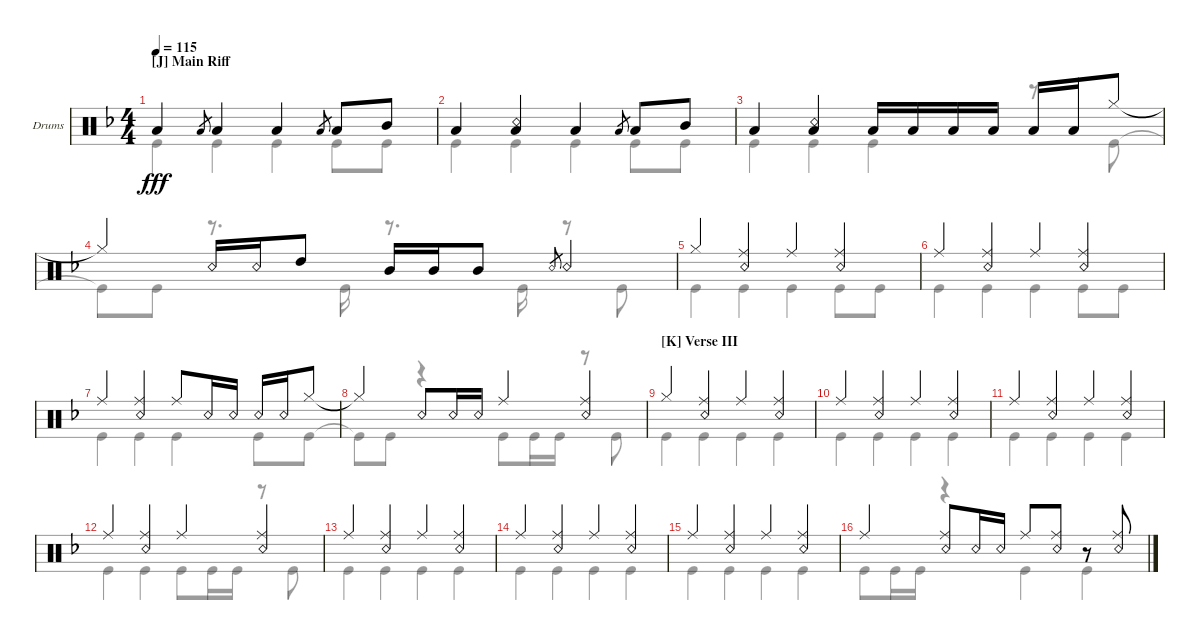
\defaultSystemsLayout 4
\bracketExtendMode groupsimilarinstruments
\firstSystemTrackNameOrientation horizontal
\otherSystemsTrackNameOrientation horizontal
\track ("Randy Castillo" "Drums") {instrument percussion}
\staff {score}
\articulation defaults
\voice
\ts (4 4)
\section ("J" "Main Riff")
\tempo 115
\clef neutral
\ks f "Low Tom (hit)".4{dy fff} "Low Tom (hit)".8{gr} "Low Tom (hit)".4 "Low Tom (hit)".4 "Low Tom (hit)".8{gr} "Low Tom (hit)".8 "Mid Tom (hit)".8
|
"Low Tom (hit)".4 ("Low Tom (hit)" "Snare (rim shot)").4 "Low Tom (hit)".4 "Low Tom (hit)".8{gr} "Low Tom (hit)".8 "Mid Tom (hit)".8 |
"Low Tom (hit)".4 ("Low Tom (hit)" "Snare (rim shot)").4 "Low Tom (hit)".16 "Low Tom (hit)".16 "Low Tom (hit)".16 "Low Tom (hit)".16 "Low Tom (hit)".16 "Low Tom (hit)".16 "Hi-Hat (closed)".8 |
"Hi-Hat (closed)"{t}.4 "Snare (rim shot)".16 "Snare (rim shot)".16 "High Tom (hit)".8 "Mid Tom (hit)".16 "Mid Tom (hit)".16 "Mid Tom (hit)".8 "Snare (rim shot)".8{gr} "Snare (rim shot)".4 |
"Hi-Hat (closed)".4 ("Ride (middle)" "Snare (rim shot)").4 "Ride (middle)".4 ("Ride (middle)" "Snare (rim shot)").4 |
"Ride (middle)".4 ("Ride (middle)" "Snare (rim shot)").4 "Ride (middle)".4 ("Ride (middle)" "Snare (rim shot)").4 |
"Ride (middle)".4 ("Ride (middle)" "Snare (rim shot)").4 "Ride (middle)".8 "Snare (rim shot)".16 "Snare (rim shot)".16 "Snare (rim shot)".16 "Snare (rim shot)".16 "Hi-Hat (closed)".8 |
"Hi-Hat (closed)"{t}.4 "Snare (rim shot)".8 "Snare (rim shot)".16 "Snare (rim shot)".16 "Ride (middle)".4 ("Ride (middle)" "Snare (rim shot)").4 |
\section ("K" "Verse III")
"Hi-Hat (closed)".4 ("Ride (middle)" "Snare (rim shot)").4 "Ride (middle)".4 ("Ride (middle)" "Snare (rim shot)").4 |
"Ride (middle)".4 ("Ride (middle)" "Snare (rim shot)").4 "Ride (middle)".4 ("Ride (middle)" "Snare (rim shot)").4 |
"Ride (middle)".4 ("Ride (middle)" "Snare (rim shot)").4 "Ride (middle)".4 ("Ride (middle)" "Snare (rim shot)").4 |
"Ride (middle)".4 ("Ride (middle)" "Snare (rim shot)").4 "Ride (middle)".4 ("Ride (middle)" "Snare (rim shot)").4 |
"Ride (middle)".4 ("Ride (middle)" "Snare (rim shot)").4 "Ride (middle)".4 ("Ride (middle)" "Snare (rim shot)").4 |
"Ride (middle)".4 ("Ride (middle)" "Snare (rim shot)").4 "Ride (middle)".4 ("Ride (middle)" "Snare (rim shot)").4 |
"Ride (middle)".4 ("Ride (middle)" "Snare (rim shot)").4 "Ride (middle)".4 ("Ride (middle)" "Snare (rim shot)").4 |
"Ride (middle)".4 ("Ride (middle)" "Snare (rim shot)").8 "Snare (rim shot)".16 "Snare (rim shot)".16 "Ride (middle)".8 ("Ride (middle)" "Snare (rim shot)").8 r.8 ("Ride (middle)" "Snare (rim shot)").8
\voice
\clef neutral
\ottava regular
\simile none
\ks f "Kick (hit)".4{dy fff} "Kick (hit)".4 "Kick (hit)".4 "Kick (hit)".8 "Kick (hit)".8
|
"Kick (hit)".4 "Kick (hit)".4 "Kick (hit)".4 "Kick (hit)".8 "Kick (hit)".8 |
"Kick (hit)".4 "Kick (hit)".4 "Kick (hit)".4 r.8 "Kick (hit)".8 |
"Kick (hit)"{t}.8 "Kick (hit)".8 r.8{d} "Kick (hit)".16 r.8{d} "Kick (hit)".16 r.8 "Kick (hit)".8 |
"Kick (hit)".4 "Kick (hit)".4 "Kick (hit)".4 "Kick (hit)".8 "Kick (hit)".8 |
"Kick (hit)".4 "Kick (hit)".4 "Kick (hit)".4 "Kick (hit)".8 "Kick (hit)".8 |
"Kick (hit)".4 "Kick (hit)".4 "Kick (hit)".4 "Kick (hit)".8 "Kick (hit)".8 |
"Kick (hit)"{t}.8 "Kick (hit)".8 r.4 "Kick (hit)".8 "Kick (hit)".16 "Kick (hit)".16 r.8 "Kick (hit)".8 |
"Kick (hit)".4 "Kick (hit)".4 "Kick (hit)".4 "Kick (hit)".4 |
"Kick (hit)".4 "Kick (hit)".4 "Kick (hit)".4 "Kick (hit)".4 |
"Kick (hit)".4 "Kick (hit)".4 "Kick (hit)".4 "Kick (hit)".4 |
"Kick (hit)".4 "Kick (hit)".4 "Kick (hit)".8 "Kick (hit)".16 "Kick (hit)".16 r.8 "Kick (hit)".8 |
"Kick (hit)".4 "Kick (hit)".4 "Kick (hit)".4 "Kick (hit)".4 |
"Kick (hit)".4 "Kick (hit)".4 "Kick (hit)".4 "Kick (hit)".4 |
"Kick (hit)".4 "Kick (hit)".4 "Kick (hit)".4 "Kick (hit)".4 |
"Kick (hit)".8 "Kick (hit)".16 "Kick (hit)".16 r.4 "Kick (hit)".4 "Kick (hit)".4
